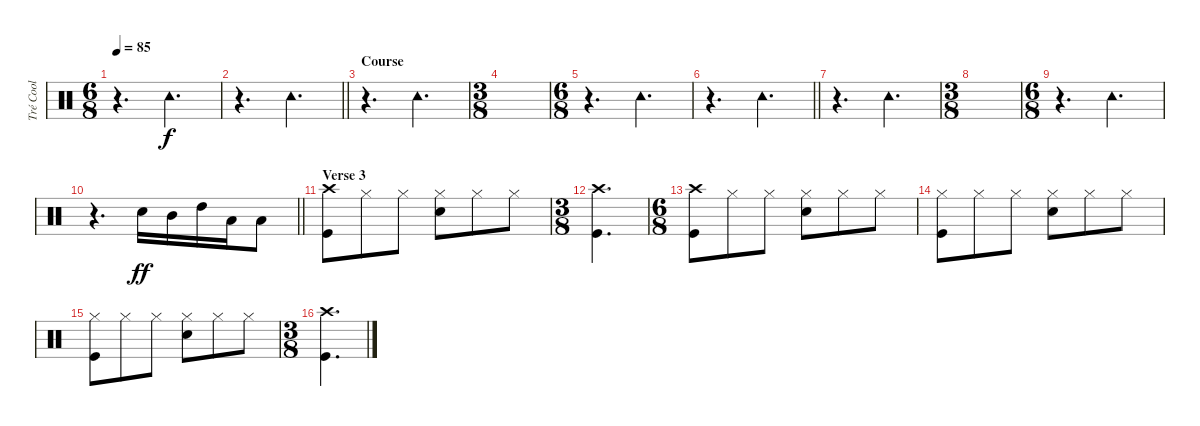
\track ("Tré Cool" "Tré Cool") {instrument percussion}
\staff {score}
\articulation defaults
\ts (6 8)
\tempo 85
\clef neutral
\ks c
r.4{d dy f} "Tambourine (hit)".4{d} |
\barLineRight lightlight
r.4{d} "Tambourine (hit)".4{d} |
\section ("" "Course")
r.4{d} "Tambourine (hit)".4{d} |
\ts (3 8)
|
\ts (6 8)
r.4{d} "Tambourine (hit)".4{d} |
\barLineRight lightlight
r.4{d} "Tambourine (hit)".4{d} |
r.4{d} "Tambourine (hit)".4{d} |
\ts (3 8)
|
\ts (6 8)
r.4{d} "Tambourine (hit)".4{d} |
\barLineRight lightlight
r.4{d} "Snare (hit) 2".16{dy ff} "Mid Tom (hit)".16 "High Tom (hit)".16 "Low Tom (hit)".16 "Low Floor Tom (hit)".8 |
\section ("" "Verse 3")
("Crash high (hit)" "Kick (hit)").8 "Hi-Hat (closed)".8 "Hi-Hat (closed)".8 ("Hi-Hat (closed)" "Snare (hit) 2").8 "Hi-Hat (closed)".8 "Hi-Hat (closed)".8 |
\ts (3 8)
("Crash high (hit)" "Kick (hit)").4{d} |
\ts (6 8)
("Crash high (hit)" "Kick (hit)").8 "Hi-Hat (closed)".8 "Hi-Hat (closed)".8 ("Hi-Hat (closed)" "Snare (hit) 2").8 "Hi-Hat (closed)".8 "Hi-Hat (closed)".8 |
("Hi-Hat (closed)" "Kick (hit)").8 "Hi-Hat (closed)".8 "Hi-Hat (closed)".8 ("Hi-Hat (closed)" "Snare (hit) 2").8 "Hi-Hat (closed)".8 "Hi-Hat (closed)".8 |
("Hi-Hat (closed)" "Kick (hit)").8 "Hi-Hat (closed)".8 "Hi-Hat (closed)".8 ("Hi-Hat (closed)" "Snare (hit) 2").8 "Hi-Hat (closed)".8 "Hi-Hat (closed)".8 |
\ts (3 8)
("Crash high (hit)" "Kick (hit)").4{d}
